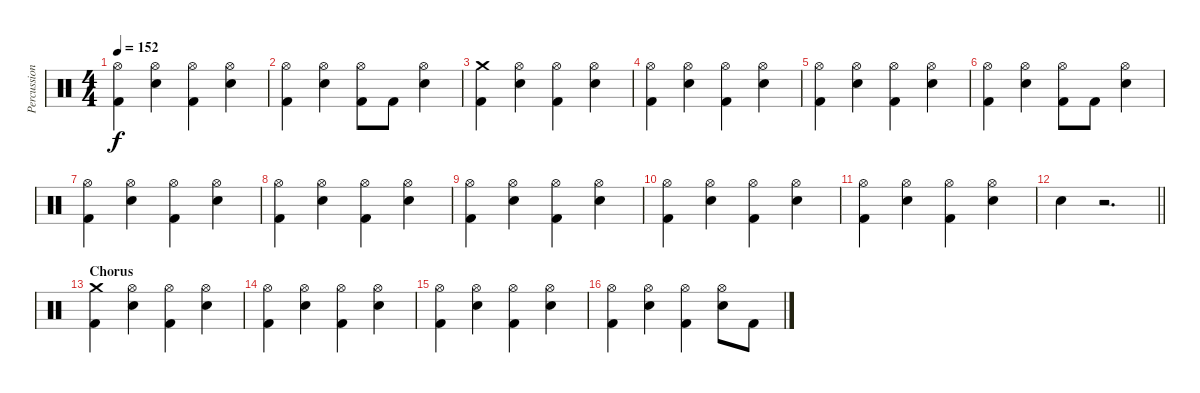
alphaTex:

\track ("Percussion" "Percussion") {instrument percussion}
\staff {score}
\articulation defaults
\ts (4 4)
\tempo 152
\clef neutral
\ks c
("Hi-Hat (open)" "Kick (hit) 2").4{dy f} ("Hi-Hat (open)" "Electric Snare (hit)").4 ("Hi-Hat (open)" "Kick (hit) 2").4 ("Hi-Hat (open)" "Electric Snare (hit)").4 |
("Hi-Hat (open)" "Kick (hit) 2").4 ("Hi-Hat (open)" "Electric Snare (hit)").4 ("Hi-Hat (open)" "Kick (hit) 2").8 "Kick (hit) 2".8 ("Hi-Hat (open)" "Electric Snare (hit)").4 |
("Crash medium (hit)" "Kick (hit) 2").4 ("Hi-Hat (open)" "Electric Snare (hit)").4 ("Hi-Hat (open)" "Kick (hit) 2").4 ("Hi-Hat (open)" "Electric Snare (hit)").4 |
("Hi-Hat (open)" "Kick (hit) 2").4 ("Hi-Hat (open)" "Electric Snare (hit)").4 ("Hi-Hat (open)" "Kick (hit) 2").4 ("Hi-Hat (open)" "Electric Snare (hit)").4 |
("Hi-Hat (open)" "Kick (hit) 2").4 ("Hi-Hat (open)" "Electric Snare (hit)").4 ("Hi-Hat (open)" "Kick (hit) 2").4 ("Hi-Hat (open)" "Electric Snare (hit)").4 |
("Hi-Hat (open)" "Kick (hit) 2").4 ("Hi-Hat (open)" "Electric Snare (hit)").4 ("Hi-Hat (open)" "Kick (hit) 2").8 "Kick (hit) 2".8 ("Hi-Hat (open)" "Electric Snare (hit)").4 |
("Hi-Hat (open)" "Kick (hit) 2").4 ("Hi-Hat (open)" "Electric Snare (hit)").4 ("Hi-Hat (open)" "Kick (hit) 2").4 ("Hi-Hat (open)" "Electric Snare (hit)").4 |
("Hi-Hat (open)" "Kick (hit) 2").4 ("Hi-Hat (open)" "Electric Snare (hit)").4 ("Hi-Hat (open)" "Kick (hit) 2").4 ("Hi-Hat (open)" "Electric Snare (hit)").4 |
("Hi-Hat (open)" "Kick (hit) 2").4 ("Hi-Hat (open)" "Electric Snare (hit)").4 ("Hi-Hat (open)" "Kick (hit) 2").4 ("Hi-Hat (open)" "Electric Snare (hit)").4 |
("Hi-Hat (open)" "Kick (hit) 2").4 ("Hi-Hat (open)" "Electric Snare (hit)").4 ("Hi-Hat (open)" "Kick (hit) 2").4 ("Hi-Hat (open)" "Electric Snare (hit)").4 |
("Hi-Hat (open)" "Kick (hit) 2").4 ("Hi-Hat (open)" "Electric Snare (hit)").4 ("Hi-Hat (open)" "Kick (hit) 2").4 ("Hi-Hat (open)" "Electric Snare (hit)").4 |
\barLineRight lightlight "Electric Snare (hit)".4
r.2{d} |
\section ("" "Chorus")
("Crash medium (hit)" "Kick (hit) 2").4 ("Hi-Hat (open)" "Electric Snare (hit)").4 ("Hi-Hat (open)" "Kick (hit) 2").4 ("Hi-Hat (open)" "Electric Snare (hit)").4 |
("Hi-Hat (open)" "Kick (hit) 2").4 ("Hi-Hat (open)" "Electric Snare (hit)").4 ("Hi-Hat (open)" "Kick (hit) 2").4 ("Hi-Hat (open)" "Electric Snare (hit)").4 |
("Hi-Hat (open)" "Kick (hit) 2").4 ("Hi-Hat (open)" "Electric Snare (hit)").4 ("Hi-Hat (open)" "Kick (hit) 2").4 ("Hi-Hat (open)" "Electric Snare (hit)").4 |
("Hi-Hat (open)" "Kick (hit) 2").4 ("Hi-Hat (open)" "Electric Snare (hit)").4 ("Hi-Hat (open)" "Kick (hit) 2").4 ("Hi-Hat (open)" "Electric Snare (hit)").8 "Kick (hit) 2".8
